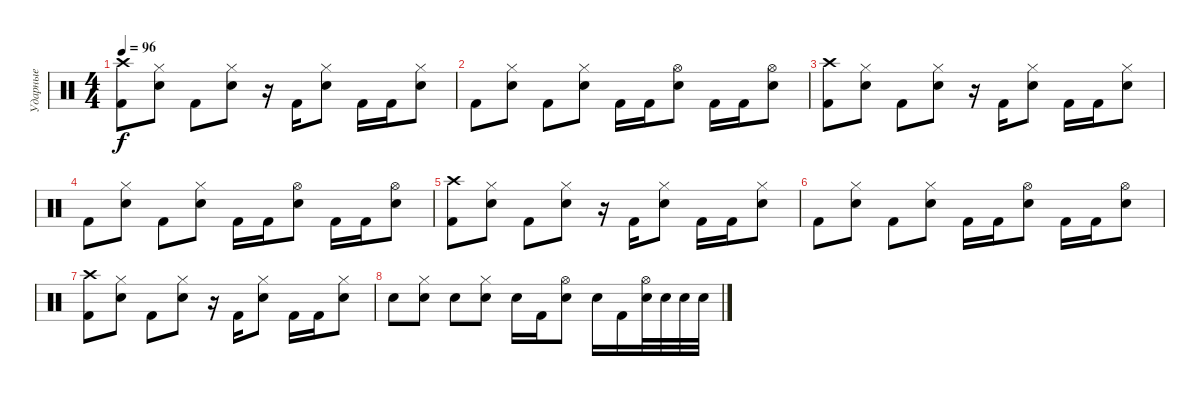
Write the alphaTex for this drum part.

\track ("Ударные" "Ударные") {instrument percussion}
\staff {score}
\articulation defaults
\ts (4 4)
\tempo 96
\clef neutral
\ks c
("Crash high (hit)" "Kick (hit) 2").8{dy f} ("Hi-Hat (closed)" "Electric Snare (hit)").8 "Kick (hit) 2".8 ("Hi-Hat (closed)" "Electric Snare (hit)").8 r.16 "Kick (hit) 2".16 ("Hi-Hat (closed)" "Electric Snare (hit)").8 "Kick (hit) 2".16 "Kick (hit) 2".16 ("Hi-Hat (closed)" "Electric Snare (hit)").8 |
"Kick (hit) 2".8 ("Hi-Hat (closed)" "Electric Snare (hit)").8 "Kick (hit) 2".8 ("Hi-Hat (closed)" "Electric Snare (hit)").8 "Kick (hit) 2".16 "Kick (hit) 2".16 ("Hi-Hat (open)" "Electric Snare (hit)").8 "Kick (hit) 2".16 "Kick (hit) 2".16 ("Hi-Hat (open)" "Electric Snare (hit)").8 |
("Crash high (hit)" "Kick (hit) 2").8 ("Hi-Hat (closed)" "Electric Snare (hit)").8 "Kick (hit) 2".8 ("Hi-Hat (closed)" "Electric Snare (hit)").8 r.16 "Kick (hit) 2".16 ("Hi-Hat (closed)" "Electric Snare (hit)").8 "Kick (hit) 2".16 "Kick (hit) 2".16 ("Hi-Hat (closed)" "Electric Snare (hit)").8 |
"Kick (hit) 2".8 ("Hi-Hat (closed)" "Electric Snare (hit)").8 "Kick (hit) 2".8 ("Hi-Hat (closed)" "Electric Snare (hit)").8 "Kick (hit) 2".16 "Kick (hit) 2".16 ("Hi-Hat (open)" "Electric Snare (hit)").8 "Kick (hit) 2".16 "Kick (hit) 2".16 ("Hi-Hat (open)" "Electric Snare (hit)").8 |
("Crash high (hit)" "Kick (hit) 2").8 ("Hi-Hat (closed)" "Electric Snare (hit)").8 "Kick (hit) 2".8 ("Hi-Hat (closed)" "Electric Snare (hit)").8 r.16 "Kick (hit) 2".16 ("Hi-Hat (closed)" "Electric Snare (hit)").8 "Kick (hit) 2".16 "Kick (hit) 2".16 ("Hi-Hat (closed)" "Electric Snare (hit)").8 |
"Kick (hit) 2".8 ("Hi-Hat (closed)" "Electric Snare (hit)").8 "Kick (hit) 2".8 ("Hi-Hat (closed)" "Electric Snare (hit)").8 "Kick (hit) 2".16 "Kick (hit) 2".16 ("Hi-Hat (open)" "Electric Snare (hit)").8 "Kick (hit) 2".16 "Kick (hit) 2".16 ("Hi-Hat (open)" "Electric Snare (hit)").8 |
("Crash high (hit)" "Kick (hit) 2").8 ("Hi-Hat (closed)" "Electric Snare (hit)").8 "Kick (hit) 2".8 ("Hi-Hat (closed)" "Electric Snare (hit)").8 r.16 "Kick (hit) 2".16 ("Hi-Hat (closed)" "Electric Snare (hit)").8 "Kick (hit) 2".16 "Kick (hit) 2".16 ("Hi-Hat (closed)" "Electric Snare (hit)").8 |
"Electric Snare (hit)".8 ("Hi-Hat (closed)" "Electric Snare (hit)").8 "Electric Snare (hit)".8 ("Hi-Hat (closed)" "Electric Snare (hit)").8 "Electric Snare (hit)".16 "Kick (hit) 2".16 ("Hi-Hat (open)" "Electric Snare (hit)").8 "Electric Snare (hit)".16 "Kick (hit) 2".16 ("Hi-Hat (open)" "Electric Snare (hit)").32 "Electric Snare (hit)".32 "Electric Snare (hit)".32 "Electric Snare (hit)".32
